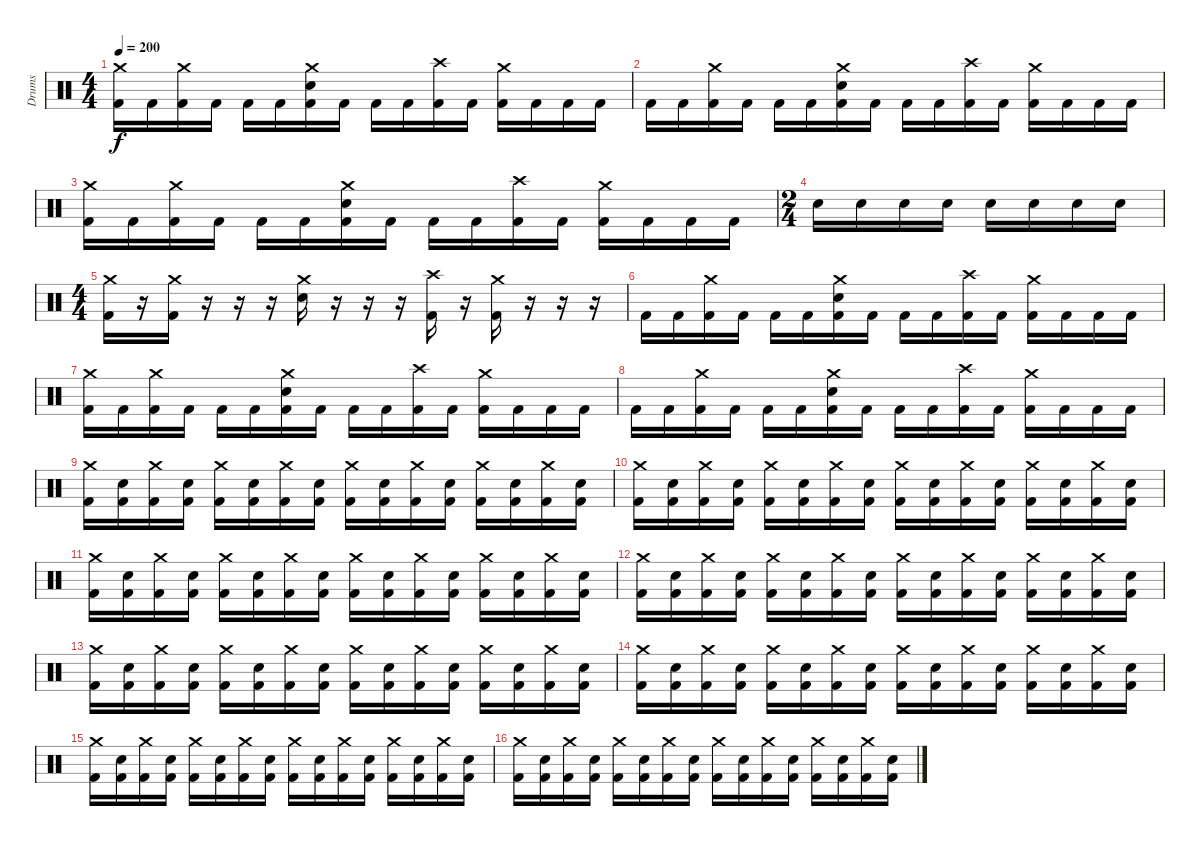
\track ("Drums" "Drums") {instrument percussion}
\staff {score}
\articulation defaults
\ts (4 4)
\tempo 200
\clef neutral
\ks c
("Crash medium (hit)" "Kick (hit) 2").16{dy f} "Kick (hit) 2".16 ("Crash medium (hit)" "Kick (hit) 2").16 "Kick (hit) 2".16 "Kick (hit) 2".16 "Kick (hit) 2".16 ("Crash medium (hit)" "Electric Snare (hit)" "Kick (hit) 2").16 "Kick (hit) 2".16 "Kick (hit) 2".16 "Kick (hit) 2".16 ("Crash high (hit)" "Kick (hit) 2").16 "Kick (hit) 2".16 ("Crash medium (hit)" "Kick (hit) 2").16 "Kick (hit) 2".16 "Kick (hit) 2".16 "Kick (hit) 2".16 |
"Kick (hit) 2".16 "Kick (hit) 2".16 ("Crash medium (hit)" "Kick (hit) 2").16 "Kick (hit) 2".16 "Kick (hit) 2".16 "Kick (hit) 2".16 ("Crash medium (hit)" "Electric Snare (hit)" "Kick (hit) 2").16 "Kick (hit) 2".16 "Kick (hit) 2".16 "Kick (hit) 2".16 ("Crash high (hit)" "Kick (hit) 2").16 "Kick (hit) 2".16 ("Crash medium (hit)" "Kick (hit) 2").16 "Kick (hit) 2".16 "Kick (hit) 2".16 "Kick (hit) 2".16 |
("Crash medium (hit)" "Kick (hit) 2").16 "Kick (hit) 2".16 ("Crash medium (hit)" "Kick (hit) 2").16 "Kick (hit) 2".16 "Kick (hit) 2".16 "Kick (hit) 2".16 ("Crash medium (hit)" "Electric Snare (hit)" "Kick (hit) 2").16 "Kick (hit) 2".16 "Kick (hit) 2".16 "Kick (hit) 2".16 ("Crash high (hit)" "Kick (hit) 2").16 "Kick (hit) 2".16 ("Crash medium (hit)" "Kick (hit) 2").16 "Kick (hit) 2".16 "Kick (hit) 2".16 "Kick (hit) 2".16 |
\ts (2 4)
"Electric Snare (hit)".16 "Electric Snare (hit)".16 "Electric Snare (hit)".16 "Electric Snare (hit)".16 "Electric Snare (hit)".16 "Electric Snare (hit)".16 "Electric Snare (hit)".16 "Electric Snare (hit)".16 |
\ts (4 4)
("Crash medium (hit)" "Kick (hit) 2").16 r.16 ("Crash medium (hit)" "Kick (hit) 2").16 r.16 r.16 r.16 ("Crash medium (hit)" "Electric Snare (hit)").16 r.16 r.16 r.16 ("Crash high (hit)" "Kick (hit) 2").16 r.16 ("Crash medium (hit)" "Kick (hit) 2").16 r.16 r.16 r.16 |
"Kick (hit) 2".16 "Kick (hit) 2".16 ("Crash medium (hit)" "Kick (hit) 2").16 "Kick (hit) 2".16 "Kick (hit) 2".16 "Kick (hit) 2".16 ("Crash medium (hit)" "Electric Snare (hit)" "Kick (hit) 2").16 "Kick (hit) 2".16 "Kick (hit) 2".16 "Kick (hit) 2".16 ("Crash high (hit)" "Kick (hit) 2").16 "Kick (hit) 2".16 ("Crash medium (hit)" "Kick (hit) 2").16 "Kick (hit) 2".16 "Kick (hit) 2".16 "Kick (hit) 2".16 |
("Crash medium (hit)" "Kick (hit) 2").16 "Kick (hit) 2".16 ("Crash medium (hit)" "Kick (hit) 2").16 "Kick (hit) 2".16 "Kick (hit) 2".16 "Kick (hit) 2".16 ("Crash medium (hit)" "Electric Snare (hit)" "Kick (hit) 2").16 "Kick (hit) 2".16 "Kick (hit) 2".16 "Kick (hit) 2".16 ("Crash high (hit)" "Kick (hit) 2").16 "Kick (hit) 2".16 ("Crash medium (hit)" "Kick (hit) 2").16 "Kick (hit) 2".16 "Kick (hit) 2".16 "Kick (hit) 2".16 |
"Kick (hit) 2".16 "Kick (hit) 2".16 ("Crash medium (hit)" "Kick (hit) 2").16 "Kick (hit) 2".16 "Kick (hit) 2".16 "Kick (hit) 2".16 ("Crash medium (hit)" "Electric Snare (hit)" "Kick (hit) 2").16 "Kick (hit) 2".16 "Kick (hit) 2".16 "Kick (hit) 2".16 ("Crash high (hit)" "Kick (hit) 2").16 "Kick (hit) 2".16 ("Crash medium (hit)" "Kick (hit) 2").16 "Kick (hit) 2".16 "Kick (hit) 2".16 "Kick (hit) 2".16 |
("Crash medium (hit)" "Kick (hit) 2").16 ("Electric Snare (hit)" "Kick (hit) 2").16 ("Crash medium (hit)" "Kick (hit) 2").16 ("Electric Snare (hit)" "Kick (hit) 2").16 ("Crash medium (hit)" "Kick (hit) 2").16 ("Electric Snare (hit)" "Kick (hit) 2").16 ("Crash medium (hit)" "Kick (hit) 2").16 ("Electric Snare (hit)" "Kick (hit) 2").16 ("Crash medium (hit)" "Kick (hit) 2").16 ("Electric Snare (hit)" "Kick (hit) 2").16 ("Crash medium (hit)" "Kick (hit) 2").16 ("Electric Snare (hit)" "Kick (hit) 2").16 ("Crash medium (hit)" "Kick (hit) 2").16 ("Electric Snare (hit)" "Kick (hit) 2").16 ("Crash medium (hit)" "Kick (hit) 2").16 ("Electric Snare (hit)" "Kick (hit) 2").16 |
("Crash medium (hit)" "Kick (hit) 2").16 ("Electric Snare (hit)" "Kick (hit) 2").16 ("Crash medium (hit)" "Kick (hit) 2").16 ("Electric Snare (hit)" "Kick (hit) 2").16 ("Crash medium (hit)" "Kick (hit) 2").16 ("Electric Snare (hit)" "Kick (hit) 2").16 ("Crash medium (hit)" "Kick (hit) 2").16 ("Electric Snare (hit)" "Kick (hit) 2").16 ("Crash medium (hit)" "Kick (hit) 2").16 ("Electric Snare (hit)" "Kick (hit) 2").16 ("Crash medium (hit)" "Kick (hit) 2").16 ("Electric Snare (hit)" "Kick (hit) 2").16 ("Crash medium (hit)" "Kick (hit) 2").16 ("Electric Snare (hit)" "Kick (hit) 2").16 ("Crash medium (hit)" "Kick (hit) 2").16 ("Electric Snare (hit)" "Kick (hit) 2").16 |
("Crash medium (hit)" "Kick (hit) 2").16 ("Electric Snare (hit)" "Kick (hit) 2").16 ("Crash medium (hit)" "Kick (hit) 2").16 ("Electric Snare (hit)" "Kick (hit) 2").16 ("Crash medium (hit)" "Kick (hit) 2").16 ("Electric Snare (hit)" "Kick (hit) 2").16 ("Crash medium (hit)" "Kick (hit) 2").16 ("Electric Snare (hit)" "Kick (hit) 2").16 ("Crash medium (hit)" "Kick (hit) 2").16 ("Electric Snare (hit)" "Kick (hit) 2").16 ("Crash medium (hit)" "Kick (hit) 2").16 ("Electric Snare (hit)" "Kick (hit) 2").16 ("Crash medium (hit)" "Kick (hit) 2").16 ("Electric Snare (hit)" "Kick (hit) 2").16 ("Crash medium (hit)" "Kick (hit) 2").16 ("Electric Snare (hit)" "Kick (hit) 2").16 |
("Crash medium (hit)" "Kick (hit) 2").16 ("Electric Snare (hit)" "Kick (hit) 2").16 ("Crash medium (hit)" "Kick (hit) 2").16 ("Electric Snare (hit)" "Kick (hit) 2").16 ("Crash medium (hit)" "Kick (hit) 2").16 ("Electric Snare (hit)" "Kick (hit) 2").16 ("Crash medium (hit)" "Kick (hit) 2").16 ("Electric Snare (hit)" "Kick (hit) 2").16 ("Crash medium (hit)" "Kick (hit) 2").16 ("Electric Snare (hit)" "Kick (hit) 2").16 ("Crash medium (hit)" "Kick (hit) 2").16 ("Electric Snare (hit)" "Kick (hit) 2").16 ("Crash medium (hit)" "Kick (hit) 2").16 ("Electric Snare (hit)" "Kick (hit) 2").16 ("Crash medium (hit)" "Kick (hit) 2").16 ("Electric Snare (hit)" "Kick (hit) 2").16 |
("Crash medium (hit)" "Kick (hit) 2").16 ("Electric Snare (hit)" "Kick (hit) 2").16 ("Crash medium (hit)" "Kick (hit) 2").16 ("Electric Snare (hit)" "Kick (hit) 2").16 ("Crash medium (hit)" "Kick (hit) 2").16 ("Electric Snare (hit)" "Kick (hit) 2").16 ("Crash medium (hit)" "Kick (hit) 2").16 ("Electric Snare (hit)" "Kick (hit) 2").16 ("Crash medium (hit)" "Kick (hit) 2").16 ("Electric Snare (hit)" "Kick (hit) 2").16 ("Crash medium (hit)" "Kick (hit) 2").16 ("Electric Snare (hit)" "Kick (hit) 2").16 ("Crash medium (hit)" "Kick (hit) 2").16 ("Electric Snare (hit)" "Kick (hit) 2").16 ("Crash medium (hit)" "Kick (hit) 2").16 ("Electric Snare (hit)" "Kick (hit) 2").16 |
("Crash medium (hit)" "Kick (hit) 2").16 ("Electric Snare (hit)" "Kick (hit) 2").16 ("Crash medium (hit)" "Kick (hit) 2").16 ("Electric Snare (hit)" "Kick (hit) 2").16 ("Crash medium (hit)" "Kick (hit) 2").16 ("Electric Snare (hit)" "Kick (hit) 2").16 ("Crash medium (hit)" "Kick (hit) 2").16 ("Electric Snare (hit)" "Kick (hit) 2").16 ("Crash medium (hit)" "Kick (hit) 2").16 ("Electric Snare (hit)" "Kick (hit) 2").16 ("Crash medium (hit)" "Kick (hit) 2").16 ("Electric Snare (hit)" "Kick (hit) 2").16 ("Crash medium (hit)" "Kick (hit) 2").16 ("Electric Snare (hit)" "Kick (hit) 2").16 ("Crash medium (hit)" "Kick (hit) 2").16 ("Electric Snare (hit)" "Kick (hit) 2").16 |
("Crash medium (hit)" "Kick (hit) 2").16 ("Electric Snare (hit)" "Kick (hit) 2").16 ("Crash medium (hit)" "Kick (hit) 2").16 ("Electric Snare (hit)" "Kick (hit) 2").16 ("Crash medium (hit)" "Kick (hit) 2").16 ("Electric Snare (hit)" "Kick (hit) 2").16 ("Crash medium (hit)" "Kick (hit) 2").16 ("Electric Snare (hit)" "Kick (hit) 2").16 ("Crash medium (hit)" "Kick (hit) 2").16 ("Electric Snare (hit)" "Kick (hit) 2").16 ("Crash medium (hit)" "Kick (hit) 2").16 ("Electric Snare (hit)" "Kick (hit) 2").16 ("Crash medium (hit)" "Kick (hit) 2").16 ("Electric Snare (hit)" "Kick (hit) 2").16 ("Crash medium (hit)" "Kick (hit) 2").16 ("Electric Snare (hit)" "Kick (hit) 2").16 |
("Crash medium (hit)" "Kick (hit) 2").16 ("Electric Snare (hit)" "Kick (hit) 2").16 ("Crash medium (hit)" "Kick (hit) 2").16 ("Electric Snare (hit)" "Kick (hit) 2").16 ("Crash medium (hit)" "Kick (hit) 2").16 ("Electric Snare (hit)" "Kick (hit) 2").16 ("Crash medium (hit)" "Kick (hit) 2").16 ("Electric Snare (hit)" "Kick (hit) 2").16 ("Crash medium (hit)" "Kick (hit) 2").16 ("Electric Snare (hit)" "Kick (hit) 2").16 ("Crash medium (hit)" "Kick (hit) 2").16 ("Electric Snare (hit)" "Kick (hit) 2").16 ("Crash medium (hit)" "Kick (hit) 2").16 ("Electric Snare (hit)" "Kick (hit) 2").16 ("Crash medium (hit)" "Kick (hit) 2").16 ("Electric Snare (hit)" "Kick (hit) 2").16
